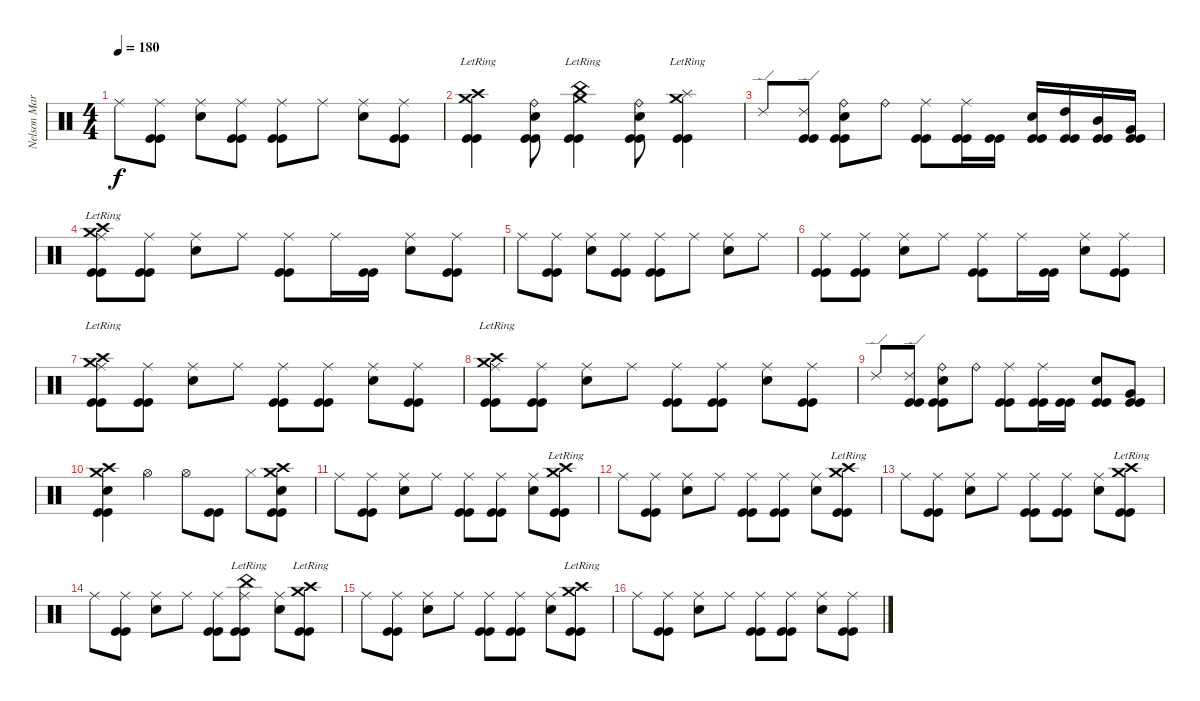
\track ("Nelson Maria" "Nelson Mar") {instrument percussion}
\staff {score}
\articulation defaults
\ts (4 4)
\tempo 180
\clef neutral
\ks c "Ride (middle)".8{dy f}
("Ride (middle)" "Kick (hit)" "Kick (hit)").8 ("Snare (hit) 2" "Ride (middle)").8 ("Ride (middle)" "Kick (hit)" "Kick (hit)").8 ("Ride (middle)" "Kick (hit)" "Kick (hit)").8 "Ride (middle)".8 ("Snare (hit) 2" "Ride (middle)").8 ("Ride (middle)" "Kick (hit)" "Kick (hit)").8 |
("Crash high (hit)"{lr} "Crash medium (hit)"{lr} "Kick (hit)" "Kick (hit)").4 ("Snare (hit) 2" "Ride (bell)" "Kick (hit)" "Kick (hit)").8 ("Crash medium (hit)"{lr} "China (hit)"{lr} "Kick (hit)" "Kick (hit)").4 ("Snare (hit) 2" "Ride (bell)" "Kick (hit)" "Kick (hit)").8 ("Crash medium (hit)"{lr} "Splash (hit)"{lr} "Kick (hit)" "Kick (hit)").4 |
"Ride (edge) 2".8 ("Ride (edge) 2" "Kick (hit)" "Kick (hit)").8 ("Snare (hit) 2" "Ride (bell)" "Kick (hit)" "Kick (hit)").8 "Ride (bell)".8 ("Ride (middle)" "Kick (hit)" "Kick (hit)").8 ("Ride (middle)" "Kick (hit)" "Kick (hit)").16 ("Kick (hit)" "Kick (hit)").16 ("Snare (hit) 2" "Kick (hit)" "Kick (hit)").16 ("High Tom (hit)" "Kick (hit)" "Kick (hit)").16 ("Mid Tom (hit)" "Kick (hit)" "Kick (hit)").16 ("Very Low Tom (hit)" "Kick (hit)" "Kick (hit)").16 |
("Crash high (hit)"{lr} "Crash medium (hit)"{lr} "Ride (middle)" "Kick (hit)" "Kick (hit)").8 ("Ride (middle)" "Kick (hit)" "Kick (hit)").8 ("Snare (hit) 2" "Ride (middle)").8 "Ride (middle)".8 ("Ride (middle)" "Kick (hit)" "Kick (hit)").8 "Ride (middle)".16 ("Kick (hit)" "Kick (hit)").16 ("Snare (hit) 2" "Ride (middle)").8 ("Ride (middle)" "Kick (hit)" "Kick (hit)").8 |
"Ride (middle)".8 ("Ride (middle)" "Kick (hit)" "Kick (hit)").8 ("Snare (hit) 2" "Ride (middle)").8 ("Ride (middle)" "Kick (hit)" "Kick (hit)").8 ("Ride (middle)" "Kick (hit)" "Kick (hit)").8 "Ride (middle)".8 ("Snare (hit) 2" "Ride (middle)").8 "Ride (middle)".8 |
("Ride (middle)" "Kick (hit)" "Kick (hit)").8 ("Ride (middle)" "Kick (hit)" "Kick (hit)").8 ("Snare (hit) 2" "Ride (middle)").8 "Ride (middle)".8 ("Ride (middle)" "Kick (hit)" "Kick (hit)").8 "Ride (middle)".16 ("Kick (hit)" "Kick (hit)").16 ("Snare (hit) 2" "Ride (middle)").8 ("Ride (middle)" "Kick (hit)" "Kick (hit)").8 |
("Crash high (hit)"{lr} "Crash medium (hit)"{lr} "Ride (middle)" "Kick (hit)" "Kick (hit)").8 ("Ride (middle)" "Kick (hit)" "Kick (hit)").8 ("Snare (hit) 2" "Ride (middle)").8 "Ride (middle)".8 ("Ride (middle)" "Kick (hit)" "Kick (hit)").8 ("Ride (middle)" "Kick (hit)" "Kick (hit)").8 ("Snare (hit) 2" "Ride (middle)").8 ("Ride (middle)" "Kick (hit)" "Kick (hit)").8 |
("Crash high (hit)"{lr} "Crash medium (hit)"{lr} "Ride (middle)" "Kick (hit)" "Kick (hit)").8 ("Ride (middle)" "Kick (hit)" "Kick (hit)").8 ("Snare (hit) 2" "Ride (middle)").8 "Ride (middle)".8 ("Ride (middle)" "Kick (hit)" "Kick (hit)").8 ("Ride (middle)" "Kick (hit)" "Kick (hit)").8 ("Snare (hit) 2" "Ride (middle)").8 ("Ride (middle)" "Kick (hit)" "Kick (hit)").8 |
"Ride (edge) 2".8 ("Ride (edge) 2" "Kick (hit)" "Kick (hit)").8 ("Snare (hit) 2" "Ride (bell)" "Kick (hit)" "Kick (hit)").8 "Ride (bell)".8 ("Ride (middle)" "Kick (hit)" "Kick (hit)").8 ("Ride (middle)" "Kick (hit)" "Kick (hit)").16 ("Kick (hit)" "Kick (hit)").16 ("Snare (hit) 2" "Kick (hit)" "Kick (hit)").8 ("Very Low Tom (hit)" "Kick (hit)" "Kick (hit)").8 |
("Crash high (hit)" "Crash medium (hit)" "Snare (hit) 2" "Kick (hit)" "Kick (hit)").4 "Hi-Hat (open)".4 "Hi-Hat (open)".8 ("Kick (hit)" "Kick (hit)").8 "Hi-Hat (closed)".8 ("Crash high (hit)" "Crash medium (hit)" "Snare (hit) 2" "Kick (hit)" "Kick (hit)").8 |
"Ride (middle)".8 ("Ride (middle)" "Kick (hit)" "Kick (hit)").8 ("Snare (hit) 2" "Ride (middle)").8 "Ride (middle)".8 ("Ride (middle)" "Kick (hit)" "Kick (hit)").8 ("Ride (middle)" "Kick (hit)" "Kick (hit)").8 ("Snare (hit) 2" "Ride (middle)").8 ("Crash high (hit)"{lr} "Crash medium (hit)"{lr} "Kick (hit)" "Kick (hit)").8 |
"Ride (middle)".8 ("Ride (middle)" "Kick (hit)" "Kick (hit)").8 ("Snare (hit) 2" "Ride (middle)").8 "Ride (middle)".8 ("Ride (middle)" "Kick (hit)" "Kick (hit)").8 ("Ride (middle)" "Kick (hit)" "Kick (hit)").8 ("Snare (hit) 2" "Ride (middle)").8 ("Crash high (hit)"{lr} "Crash medium (hit)"{lr} "Kick (hit)" "Kick (hit)").8 |
"Ride (middle)".8 ("Ride (middle)" "Kick (hit)" "Kick (hit)").8 ("Snare (hit) 2" "Ride (middle)").8 "Ride (middle)".8 ("Ride (middle)" "Kick (hit)" "Kick (hit)").8 ("Ride (middle)" "Kick (hit)" "Kick (hit)").8 ("Snare (hit) 2" "Ride (middle)").8 ("Crash high (hit)"{lr} "Crash medium (hit)"{lr} "Kick (hit)" "Kick (hit)").8 |
"Ride (middle)".8 ("Ride (middle)" "Kick (hit)" "Kick (hit)").8 ("Snare (hit) 2" "Ride (middle)").8 "Ride (middle)".8 ("Ride (middle)" "Kick (hit)" "Kick (hit)").8 ("China (hit)"{lr} "Ride (middle)" "Kick (hit)" "Kick (hit)").8 ("Snare (hit) 2" "Ride (middle)").8 ("Crash high (hit)"{lr} "Crash medium (hit)"{lr} "Kick (hit)" "Kick (hit)").8 |
"Ride (middle)".8 ("Ride (middle)" "Kick (hit)" "Kick (hit)").8 ("Snare (hit) 2" "Ride (middle)").8 "Ride (middle)".8 ("Ride (middle)" "Kick (hit)" "Kick (hit)").8 ("Ride (middle)" "Kick (hit)" "Kick (hit)").8 ("Snare (hit) 2" "Ride (middle)").8 ("Crash high (hit)"{lr} "Crash medium (hit)"{lr} "Kick (hit)" "Kick (hit)").8 |
"Ride (middle)".8 ("Ride (middle)" "Kick (hit)" "Kick (hit)").8 ("Snare (hit) 2" "Ride (middle)").8 "Ride (middle)".8 ("Ride (middle)" "Kick (hit)" "Kick (hit)").8 ("Ride (middle)" "Kick (hit)" "Kick (hit)").8 ("Snare (hit) 2" "Ride (middle)").8 ("Ride (middle)" "Kick (hit)" "Kick (hit)").8
